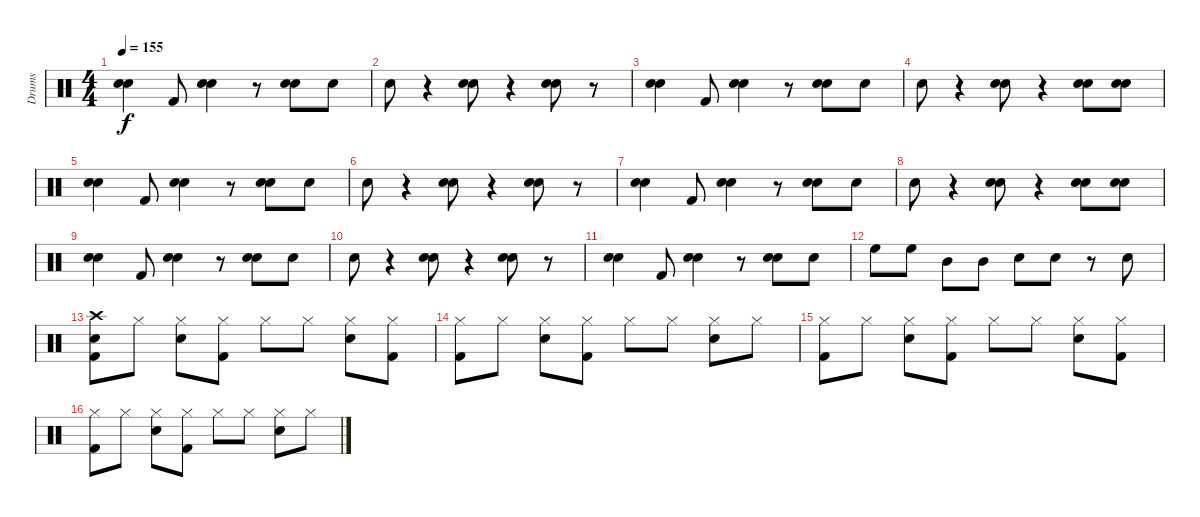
\track ("Drums" "Drums") {instrument percussion}
\staff {score}
\articulation defaults
\ts (4 4)
\tempo 155
\clef neutral
\ks c
("Snare (hit) 2" "Hand Clap (hit)").4{dy f} "Kick (hit) 2".8 ("Snare (hit) 2" "Hand Clap (hit)").4 r.8 ("Snare (hit) 2" "Hand Clap (hit)").8 "Snare (hit) 2".8 |
"Snare (hit) 2".8 r.4 ("Snare (hit) 2" "Hand Clap (hit)").8 r.4 ("Snare (hit) 2" "Hand Clap (hit)").8 r.8 |
("Snare (hit) 2" "Hand Clap (hit)").4 "Kick (hit) 2".8 ("Snare (hit) 2" "Hand Clap (hit)").4 r.8 ("Snare (hit) 2" "Hand Clap (hit)").8 "Snare (hit) 2".8 |
"Snare (hit) 2".8 r.4 ("Snare (hit) 2" "Hand Clap (hit)").8 r.4 ("Snare (hit) 2" "Hand Clap (hit)").8 ("Snare (hit) 2" "Hand Clap (hit)").8 |
("Snare (hit) 2" "Hand Clap (hit)").4 "Kick (hit) 2".8 ("Snare (hit) 2" "Hand Clap (hit)").4 r.8 ("Snare (hit) 2" "Hand Clap (hit)").8 "Snare (hit) 2".8 |
"Snare (hit) 2".8 r.4 ("Snare (hit) 2" "Hand Clap (hit)").8 r.4 ("Snare (hit) 2" "Hand Clap (hit)").8 r.8 |
("Snare (hit) 2" "Hand Clap (hit)").4 "Kick (hit) 2".8 ("Snare (hit) 2" "Hand Clap (hit)").4 r.8 ("Snare (hit) 2" "Hand Clap (hit)").8 "Snare (hit) 2".8 |
"Snare (hit) 2".8 r.4 ("Snare (hit) 2" "Hand Clap (hit)").8 r.4 ("Snare (hit) 2" "Hand Clap (hit)").8 ("Snare (hit) 2" "Hand Clap (hit)").8 |
("Snare (hit) 2" "Hand Clap (hit)").4 "Kick (hit) 2".8 ("Snare (hit) 2" "Hand Clap (hit)").4 r.8 ("Snare (hit) 2" "Hand Clap (hit)").8 "Snare (hit) 2".8 |
"Snare (hit) 2".8 r.4 ("Snare (hit) 2" "Hand Clap (hit)").8 r.4 ("Snare (hit) 2" "Hand Clap (hit)").8 r.8 |
("Snare (hit) 2" "Hand Clap (hit)").4 "Kick (hit) 2".8 ("Snare (hit) 2" "Hand Clap (hit)").4 r.8 ("Snare (hit) 2" "Hand Clap (hit)").8 "Snare (hit) 2".8 |
"High Floor Tom (hit)".8 "High Floor Tom (hit)".8 "Mid Tom (hit)".8 "Mid Tom (hit)".8 "Snare (hit) 2".8 "Snare (hit) 2".8 r.8 "Snare (hit) 2".8 |
("Snare (hit)" "Kick (hit) 2" "Crash high (hit)").8 "Hi-Hat (closed)".8 ("Hi-Hat (closed)" "Snare (hit) 2").8 ("Hi-Hat (closed)" "Kick (hit) 2").8 "Hi-Hat (closed)".8 "Hi-Hat (closed)".8 ("Hi-Hat (closed)" "Snare (hit) 2").8 ("Hi-Hat (closed)" "Kick (hit) 2").8 |
("Hi-Hat (closed)" "Kick (hit) 2").8 "Hi-Hat (closed)".8 ("Hi-Hat (closed)" "Snare (hit) 2").8 ("Hi-Hat (closed)" "Kick (hit) 2").8 "Hi-Hat (closed)".8 "Hi-Hat (closed)".8 ("Hi-Hat (closed)" "Snare (hit) 2").8 "Hi-Hat (closed)".8 |
("Hi-Hat (closed)" "Kick (hit) 2").8 "Hi-Hat (closed)".8 ("Hi-Hat (closed)" "Snare (hit) 2").8 ("Hi-Hat (closed)" "Kick (hit) 2").8 "Hi-Hat (closed)".8 "Hi-Hat (closed)".8 ("Hi-Hat (closed)" "Snare (hit) 2").8 ("Hi-Hat (closed)" "Kick (hit) 2").8 |
("Hi-Hat (closed)" "Kick (hit) 2").8 "Hi-Hat (closed)".8 ("Hi-Hat (closed)" "Snare (hit) 2").8 ("Hi-Hat (closed)" "Kick (hit) 2").8 "Hi-Hat (closed)".8 "Hi-Hat (closed)".8 ("Hi-Hat (closed)" "Snare (hit) 2").8 "Hi-Hat (closed)".8
